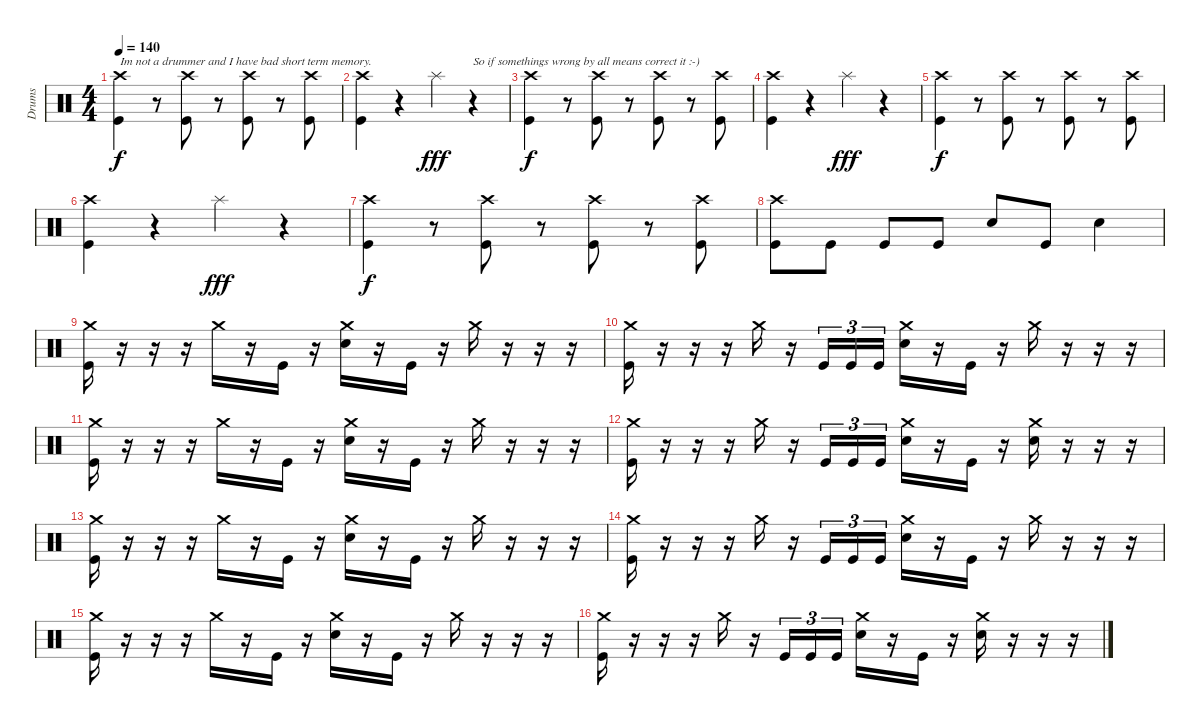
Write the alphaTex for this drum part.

\track ("Drums" "Drums") {instrument percussion}
\staff {score}
\articulation defaults
\ts (4 4)
\tempo 140
\clef neutral
\ks c
("Crash high (hit)" "Kick (hit)").4{txt "Im not a drummer and I have bad short term memory." dy f} r.8 ("Crash high (hit)" "Kick (hit)").8 r.8 ("Crash high (hit)" "Kick (hit)").8 r.8 ("Crash high (hit)" "Kick (hit)").8 |
("Crash high (hit)" "Kick (hit)").4 r.4 "Splash (hit)".4{dy fff} r.4{txt "So if somethings wrong by all means correct it :-)"} |
("Crash high (hit)" "Kick (hit)").4{dy f} r.8 ("Crash high (hit)" "Kick (hit)").8 r.8 ("Crash high (hit)" "Kick (hit)").8 r.8 ("Crash high (hit)" "Kick (hit)").8 |
("Crash high (hit)" "Kick (hit)").4 r.4 "Splash (hit)".4{dy fff} r.4 |
("Crash high (hit)" "Kick (hit)").4{dy f} r.8 ("Crash high (hit)" "Kick (hit)").8 r.8 ("Crash high (hit)" "Kick (hit)").8 r.8 ("Crash high (hit)" "Kick (hit)").8 |
("Crash high (hit)" "Kick (hit)").4 r.4 "Splash (hit)".4{dy fff} r.4 |
("Crash high (hit)" "Kick (hit)").4{dy f} r.8 ("Crash high (hit)" "Kick (hit)").8 r.8 ("Crash high (hit)" "Kick (hit)").8 r.8 ("Crash high (hit)" "Kick (hit)").8 |
("Crash high (hit)" "Kick (hit)").8 "Kick (hit)".8 "Kick (hit)".8 "Kick (hit)".8 "Snare (hit) 2".8 "Kick (hit)".8 "Snare (hit) 2".4 |
("Crash medium (hit)" "Kick (hit)").16 r.16 r.16 r.16 "Crash medium (hit)".16 r.16 "Kick (hit)".16 r.16 ("Crash medium (hit)" "Snare (hit) 2").16 r.16 "Kick (hit)".16 r.16 "Crash medium (hit)".16 r.16 r.16 r.16 |
("Crash medium (hit)" "Kick (hit)").16 r.16 r.16 r.16 "Crash medium (hit)".16 r.16 "Kick (hit)".16{tu (3 2)} "Kick (hit)".16{tu (3 2)} "Kick (hit)".16{tu (3 2)} ("Crash medium (hit)" "Snare (hit) 2").16 r.16 "Kick (hit)".16 r.16 "Crash medium (hit)".16 r.16 r.16 r.16 |
("Crash medium (hit)" "Kick (hit)").16 r.16 r.16 r.16 "Crash medium (hit)".16 r.16 "Kick (hit)".16 r.16 ("Crash medium (hit)" "Snare (hit) 2").16 r.16 "Kick (hit)".16 r.16 "Crash medium (hit)".16 r.16 r.16 r.16 |
("Crash medium (hit)" "Kick (hit)").16 r.16 r.16 r.16 "Crash medium (hit)".16 r.16 "Kick (hit)".16{tu (3 2)} "Kick (hit)".16{tu (3 2)} "Kick (hit)".16{tu (3 2)} ("Crash medium (hit)" "Snare (hit) 2").16 r.16 "Kick (hit)".16 r.16 ("Crash medium (hit)" "Snare (hit) 2").16 r.16 r.16 r.16 |
("Crash medium (hit)" "Kick (hit)").16 r.16 r.16 r.16 "Crash medium (hit)".16 r.16 "Kick (hit)".16 r.16 ("Crash medium (hit)" "Snare (hit) 2").16 r.16 "Kick (hit)".16 r.16 "Crash medium (hit)".16 r.16 r.16 r.16 |
("Crash medium (hit)" "Kick (hit)").16 r.16 r.16 r.16 "Crash medium (hit)".16 r.16 "Kick (hit)".16{tu (3 2)} "Kick (hit)".16{tu (3 2)} "Kick (hit)".16{tu (3 2)} ("Crash medium (hit)" "Snare (hit) 2").16 r.16 "Kick (hit)".16 r.16 "Crash medium (hit)".16 r.16 r.16 r.16 |
("Crash medium (hit)" "Kick (hit)").16 r.16 r.16 r.16 "Crash medium (hit)".16 r.16 "Kick (hit)".16 r.16 ("Crash medium (hit)" "Snare (hit) 2").16 r.16 "Kick (hit)".16 r.16 "Crash medium (hit)".16 r.16 r.16 r.16 |
("Crash medium (hit)" "Kick (hit)").16 r.16 r.16 r.16 "Crash medium (hit)".16 r.16 "Kick (hit)".16{tu (3 2)} "Kick (hit)".16{tu (3 2)} "Kick (hit)".16{tu (3 2)} ("Crash medium (hit)" "Snare (hit) 2").16 r.16 "Kick (hit)".16 r.16 ("Crash medium (hit)" "Snare (hit) 2").16 r.16 r.16 r.16
